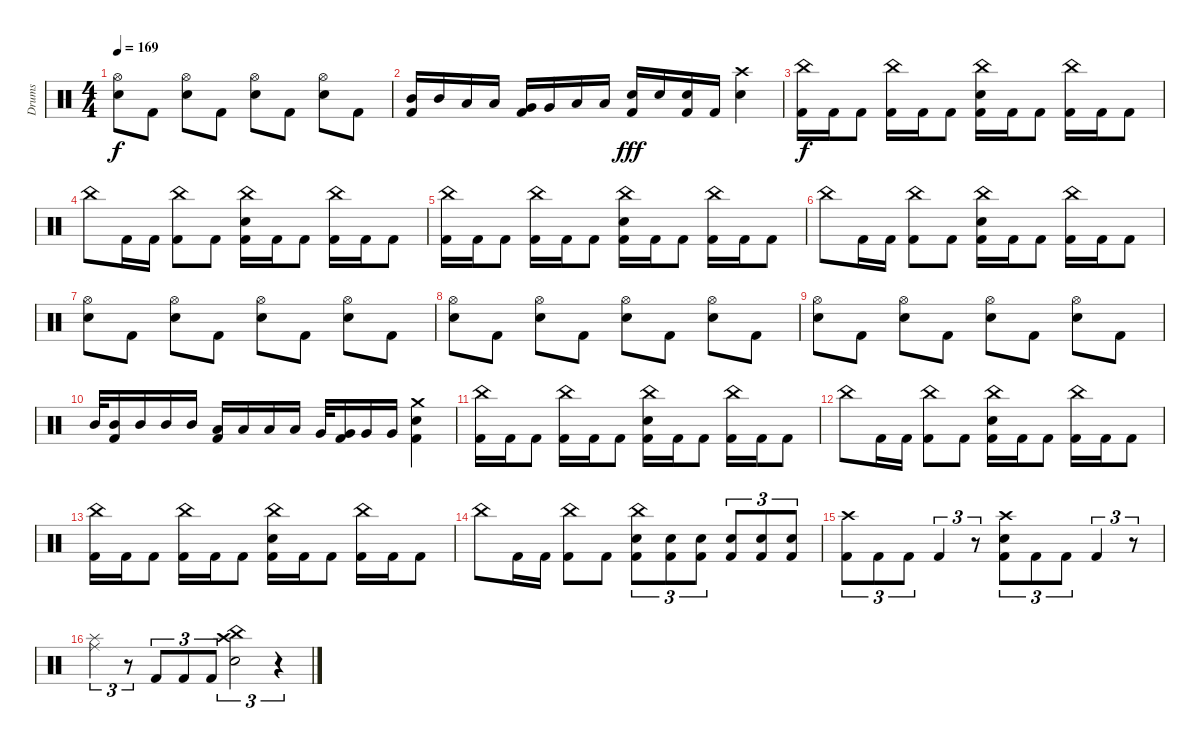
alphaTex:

\track ("Drums" "Drums") {instrument percussion}
\staff {score}
\articulation defaults
\ts (4 4)
\tempo 169
\clef neutral
\ks c
("Hi-Hat (open)" "Electric Snare (hit)").8{dy f} "Kick (hit) 2".8 ("Hi-Hat (open)" "Electric Snare (hit)").8 "Kick (hit) 2".8 ("Hi-Hat (open)" "Electric Snare (hit)").8 "Kick (hit) 2".8 ("Hi-Hat (open)" "Electric Snare (hit)").8 "Kick (hit) 2".8 |
("Mid Tom (hit)" "Kick (hit) 2").16 "Mid Tom (hit)".16 "Low Tom (hit)".16 "Low Tom (hit)".16 ("Very Low Tom (hit)" "Kick (hit) 2").16 "Very Low Tom (hit)".16 "Low Floor Tom (hit)".16 "Low Floor Tom (hit)".16 ("Electric Snare (hit)" "Kick (hit) 2").16{dy fff} "Electric Snare (hit)".16 ("Electric Snare (hit)" "Kick (hit) 2").16 "Kick (hit) 2".16 ("Crash high (hit)" "Electric Snare (hit)").4 |
("China (hit)" "Kick (hit) 2").16{dy f} "Kick (hit) 2".16 "Kick (hit) 2".8 ("China (hit)" "Kick (hit) 2").16 "Kick (hit) 2".16 "Kick (hit) 2".8 ("China (hit)" "Electric Snare (hit)" "Kick (hit) 2").16 "Kick (hit) 2".16 "Kick (hit) 2".8 ("China (hit)" "Kick (hit) 2").16 "Kick (hit) 2".16 "Kick (hit) 2".8 |
"China (hit)".8 "Kick (hit) 2".16 "Kick (hit) 2".16 ("China (hit)" "Kick (hit) 2").8 "Kick (hit) 2".8 ("China (hit)" "Electric Snare (hit)" "Kick (hit) 2").16 "Kick (hit) 2".16 "Kick (hit) 2".8 ("China (hit)" "Kick (hit) 2").16 "Kick (hit) 2".16 "Kick (hit) 2".8 |
("China (hit)" "Kick (hit) 2").16 "Kick (hit) 2".16 "Kick (hit) 2".8 ("China (hit)" "Kick (hit) 2").16 "Kick (hit) 2".16 "Kick (hit) 2".8 ("China (hit)" "Electric Snare (hit)" "Kick (hit) 2").16 "Kick (hit) 2".16 "Kick (hit) 2".8 ("China (hit)" "Kick (hit) 2").16 "Kick (hit) 2".16 "Kick (hit) 2".8 |
"China (hit)".8 "Kick (hit) 2".16 "Kick (hit) 2".16 ("China (hit)" "Kick (hit) 2").8 "Kick (hit) 2".8 ("China (hit)" "Electric Snare (hit)" "Kick (hit) 2").16 "Kick (hit) 2".16 "Kick (hit) 2".8 ("China (hit)" "Kick (hit) 2").16 "Kick (hit) 2".16 "Kick (hit) 2".8 |
("Hi-Hat (open)" "Electric Snare (hit)").8 "Kick (hit) 2".8 ("Hi-Hat (open)" "Electric Snare (hit)").8 "Kick (hit) 2".8 ("Hi-Hat (open)" "Electric Snare (hit)").8 "Kick (hit) 2".8 ("Hi-Hat (open)" "Electric Snare (hit)").8 "Kick (hit) 2".8 |
("Hi-Hat (open)" "Electric Snare (hit)").8 "Kick (hit) 2".8 ("Hi-Hat (open)" "Electric Snare (hit)").8 "Kick (hit) 2".8 ("Hi-Hat (open)" "Electric Snare (hit)").8 "Kick (hit) 2".8 ("Hi-Hat (open)" "Electric Snare (hit)").8 "Kick (hit) 2".8 |
("Hi-Hat (open)" "Electric Snare (hit)").8 "Kick (hit) 2".8 ("Hi-Hat (open)" "Electric Snare (hit)").8 "Kick (hit) 2".8 ("Hi-Hat (open)" "Electric Snare (hit)").8 "Kick (hit) 2".8 ("Hi-Hat (open)" "Electric Snare (hit)").8 "Kick (hit) 2".8 |
"Mid Tom (hit)".32 ("Mid Tom (hit)" "Kick (hit) 2").16 "Mid Tom (hit)".16 "Mid Tom (hit)".16 "Mid Tom (hit)".16 ("Low Tom (hit)" "Kick (hit) 2").16 "Low Tom (hit)".16 "Low Tom (hit)".16 "Low Tom (hit)".16 "Very Low Tom (hit)".32 ("Very Low Tom (hit)" "Kick (hit) 2").16 "Very Low Tom (hit)".16 "Very Low Tom (hit)".16 ("Crash medium (hit)" "Electric Snare (hit)" "Kick (hit) 2").4 |
("China (hit)" "Kick (hit) 2").16 "Kick (hit) 2".16 "Kick (hit) 2".8 ("China (hit)" "Kick (hit) 2").16 "Kick (hit) 2".16 "Kick (hit) 2".8 ("China (hit)" "Electric Snare (hit)" "Kick (hit) 2").16 "Kick (hit) 2".16 "Kick (hit) 2".8 ("China (hit)" "Kick (hit) 2").16 "Kick (hit) 2".16 "Kick (hit) 2".8 |
"China (hit)".8 "Kick (hit) 2".16 "Kick (hit) 2".16 ("China (hit)" "Kick (hit) 2").8 "Kick (hit) 2".8 ("China (hit)" "Electric Snare (hit)" "Kick (hit) 2").16 "Kick (hit) 2".16 "Kick (hit) 2".8 ("China (hit)" "Kick (hit) 2").16 "Kick (hit) 2".16 "Kick (hit) 2".8 |
("China (hit)" "Kick (hit) 2").16 "Kick (hit) 2".16 "Kick (hit) 2".8 ("China (hit)" "Kick (hit) 2").16 "Kick (hit) 2".16 "Kick (hit) 2".8 ("China (hit)" "Electric Snare (hit)" "Kick (hit) 2").16 "Kick (hit) 2".16 "Kick (hit) 2".8 ("China (hit)" "Kick (hit) 2").16 "Kick (hit) 2".16 "Kick (hit) 2".8 |
"China (hit)".8 "Kick (hit) 2".16 "Kick (hit) 2".16 ("China (hit)" "Kick (hit) 2").8 "Kick (hit) 2".8 ("China (hit)" "Electric Snare (hit)" "Kick (hit) 2").8{tu (3 2)} ("Electric Snare (hit)" "Kick (hit) 2").8{tu (3 2)} ("Electric Snare (hit)" "Kick (hit) 2").8{tu (3 2)} ("Electric Snare (hit)" "Kick (hit) 2").8{tu (3 2)} ("Electric Snare (hit)" "Kick (hit) 2").8{tu (3 2)} ("Electric Snare (hit)" "Kick (hit) 2").8{tu (3 2)} |
("Crash high (hit)" "Kick (hit) 2").8{tu (3 2)} "Kick (hit) 2".8{tu (3 2)} "Kick (hit) 2".8{tu (3 2)} "Kick (hit) 2".4{tu (3 2)} r.8{tu (3 2)} ("Crash high (hit)" "Electric Snare (hit)" "Kick (hit) 2").8{tu (3 2)} "Kick (hit) 2".8{tu (3 2)} "Kick (hit) 2".8{tu (3 2)} "Kick (hit) 2".4{tu (3 2)} r.8{tu (3 2)} |
("Splash (hit)" "Ride (middle)").4{tu (3 2)} r.8{tu (3 2)} "Kick (hit) 2".8{tu (3 2)} "Kick (hit) 2".8{tu (3 2)} "Kick (hit) 2".8{tu (3 2)} ("China (hit)" "Crash high (hit)" "Electric Snare (hit)").2{tu (3 2)} r.4{tu (3 2)}
